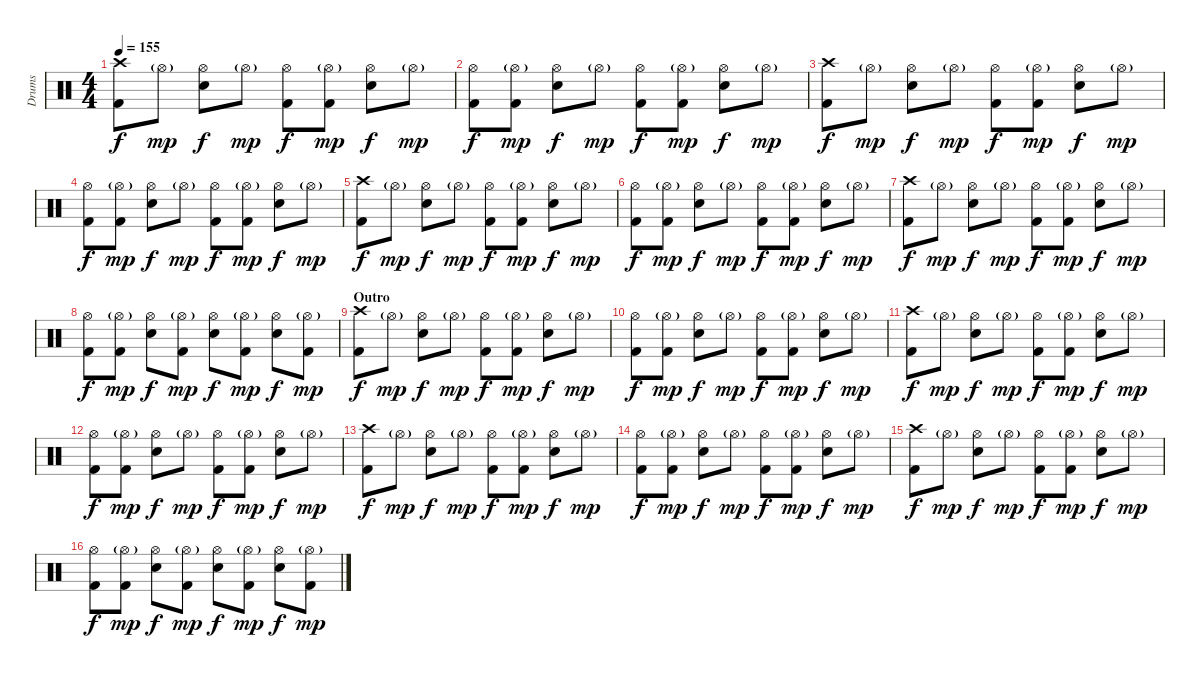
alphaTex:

\track ("Drums" "Drums") {instrument percussion}
\staff {score}
\articulation defaults
\ts (4 4)
\tempo 155
\clef neutral
\ks c
("Crash high (hit)" "Kick (hit) 2").8{dy f} "Hi-Hat (open)"{g}.8{dy mp} ("Hi-Hat (open)" "Electric Snare (hit)").8{dy f} "Hi-Hat (open)"{g}.8{dy mp} ("Hi-Hat (open)" "Kick (hit) 2").8{dy f} ("Hi-Hat (open)"{g} "Kick (hit) 2").8{dy mp} ("Hi-Hat (open)" "Electric Snare (hit)").8{dy f} "Hi-Hat (open)"{g}.8{dy mp} |
("Hi-Hat (open)" "Kick (hit) 2").8{dy f} ("Hi-Hat (open)"{g} "Kick (hit) 2").8{dy mp} ("Hi-Hat (open)" "Electric Snare (hit)").8{dy f} "Hi-Hat (open)"{g}.8{dy mp} ("Hi-Hat (open)" "Kick (hit) 2").8{dy f} ("Hi-Hat (open)"{g} "Kick (hit) 2").8{dy mp} ("Hi-Hat (open)" "Electric Snare (hit)").8{dy f} "Hi-Hat (open)"{g}.8{dy mp} |
("Crash high (hit)" "Kick (hit) 2").8{dy f} "Hi-Hat (open)"{g}.8{dy mp} ("Hi-Hat (open)" "Electric Snare (hit)").8{dy f} "Hi-Hat (open)"{g}.8{dy mp} ("Hi-Hat (open)" "Kick (hit) 2").8{dy f} ("Hi-Hat (open)"{g} "Kick (hit) 2").8{dy mp} ("Hi-Hat (open)" "Electric Snare (hit)").8{dy f} "Hi-Hat (open)"{g}.8{dy mp} |
("Hi-Hat (open)" "Kick (hit) 2").8{dy f} ("Hi-Hat (open)"{g} "Kick (hit) 2").8{dy mp} ("Hi-Hat (open)" "Electric Snare (hit)").8{dy f} "Hi-Hat (open)"{g}.8{dy mp} ("Hi-Hat (open)" "Kick (hit) 2").8{dy f} ("Hi-Hat (open)"{g} "Kick (hit) 2").8{dy mp} ("Hi-Hat (open)" "Electric Snare (hit)").8{dy f} "Hi-Hat (open)"{g}.8{dy mp} |
("Crash high (hit)" "Kick (hit) 2").8{dy f} "Hi-Hat (open)"{g}.8{dy mp} ("Hi-Hat (open)" "Electric Snare (hit)").8{dy f} "Hi-Hat (open)"{g}.8{dy mp} ("Hi-Hat (open)" "Kick (hit) 2").8{dy f} ("Hi-Hat (open)"{g} "Kick (hit) 2").8{dy mp} ("Hi-Hat (open)" "Electric Snare (hit)").8{dy f} "Hi-Hat (open)"{g}.8{dy mp} |
("Hi-Hat (open)" "Kick (hit) 2").8{dy f} ("Hi-Hat (open)"{g} "Kick (hit) 2").8{dy mp} ("Hi-Hat (open)" "Electric Snare (hit)").8{dy f} "Hi-Hat (open)"{g}.8{dy mp} ("Hi-Hat (open)" "Kick (hit) 2").8{dy f} ("Hi-Hat (open)"{g} "Kick (hit) 2").8{dy mp} ("Hi-Hat (open)" "Electric Snare (hit)").8{dy f} "Hi-Hat (open)"{g}.8{dy mp} |
("Crash high (hit)" "Kick (hit) 2").8{dy f} "Hi-Hat (open)"{g}.8{dy mp} ("Hi-Hat (open)" "Electric Snare (hit)").8{dy f} "Hi-Hat (open)"{g}.8{dy mp} ("Hi-Hat (open)" "Kick (hit) 2").8{dy f} ("Hi-Hat (open)"{g} "Kick (hit) 2").8{dy mp} ("Hi-Hat (open)" "Electric Snare (hit)").8{dy f} "Hi-Hat (open)"{g}.8{dy mp} |
("Hi-Hat (open)" "Kick (hit) 2").8{dy f} ("Hi-Hat (open)"{g} "Kick (hit) 2").8{dy mp} ("Hi-Hat (open)" "Electric Snare (hit)").8{dy f} ("Hi-Hat (open)"{g} "Kick (hit) 2").8{dy mp} ("Hi-Hat (open)" "Electric Snare (hit)").8{dy f} ("Hi-Hat (open)"{g} "Kick (hit) 2").8{dy mp} ("Hi-Hat (open)" "Electric Snare (hit)").8{dy f} ("Hi-Hat (open)"{g} "Kick (hit) 2").8{dy mp} |
\section ("" "Outro")
("Crash high (hit)" "Kick (hit) 2").8{dy f} "Hi-Hat (open)"{g}.8{dy mp} ("Hi-Hat (open)" "Electric Snare (hit)").8{dy f} "Hi-Hat (open)"{g}.8{dy mp} ("Hi-Hat (open)" "Kick (hit) 2").8{dy f} ("Hi-Hat (open)"{g} "Kick (hit) 2").8{dy mp} ("Hi-Hat (open)" "Electric Snare (hit)").8{dy f} "Hi-Hat (open)"{g}.8{dy mp} |
("Hi-Hat (open)" "Kick (hit) 2").8{dy f} ("Hi-Hat (open)"{g} "Kick (hit) 2").8{dy mp} ("Hi-Hat (open)" "Electric Snare (hit)").8{dy f} "Hi-Hat (open)"{g}.8{dy mp} ("Hi-Hat (open)" "Kick (hit) 2").8{dy f} ("Hi-Hat (open)"{g} "Kick (hit) 2").8{dy mp} ("Hi-Hat (open)" "Electric Snare (hit)").8{dy f} "Hi-Hat (open)"{g}.8{dy mp} |
("Crash high (hit)" "Kick (hit) 2").8{dy f} "Hi-Hat (open)"{g}.8{dy mp} ("Hi-Hat (open)" "Electric Snare (hit)").8{dy f} "Hi-Hat (open)"{g}.8{dy mp} ("Hi-Hat (open)" "Kick (hit) 2").8{dy f} ("Hi-Hat (open)"{g} "Kick (hit) 2").8{dy mp} ("Hi-Hat (open)" "Electric Snare (hit)").8{dy f} "Hi-Hat (open)"{g}.8{dy mp} |
("Hi-Hat (open)" "Kick (hit) 2").8{dy f} ("Hi-Hat (open)"{g} "Kick (hit) 2").8{dy mp} ("Hi-Hat (open)" "Electric Snare (hit)").8{dy f} "Hi-Hat (open)"{g}.8{dy mp} ("Hi-Hat (open)" "Kick (hit) 2").8{dy f} ("Hi-Hat (open)"{g} "Kick (hit) 2").8{dy mp} ("Hi-Hat (open)" "Electric Snare (hit)").8{dy f} "Hi-Hat (open)"{g}.8{dy mp} |
("Crash high (hit)" "Kick (hit) 2").8{dy f} "Hi-Hat (open)"{g}.8{dy mp} ("Hi-Hat (open)" "Electric Snare (hit)").8{dy f} "Hi-Hat (open)"{g}.8{dy mp} ("Hi-Hat (open)" "Kick (hit) 2").8{dy f} ("Hi-Hat (open)"{g} "Kick (hit) 2").8{dy mp} ("Hi-Hat (open)" "Electric Snare (hit)").8{dy f} "Hi-Hat (open)"{g}.8{dy mp} |
("Hi-Hat (open)" "Kick (hit) 2").8{dy f} ("Hi-Hat (open)"{g} "Kick (hit) 2").8{dy mp} ("Hi-Hat (open)" "Electric Snare (hit)").8{dy f} "Hi-Hat (open)"{g}.8{dy mp} ("Hi-Hat (open)" "Kick (hit) 2").8{dy f} ("Hi-Hat (open)"{g} "Kick (hit) 2").8{dy mp} ("Hi-Hat (open)" "Electric Snare (hit)").8{dy f} "Hi-Hat (open)"{g}.8{dy mp} |
("Crash high (hit)" "Kick (hit) 2").8{dy f} "Hi-Hat (open)"{g}.8{dy mp} ("Hi-Hat (open)" "Electric Snare (hit)").8{dy f} "Hi-Hat (open)"{g}.8{dy mp} ("Hi-Hat (open)" "Kick (hit) 2").8{dy f} ("Hi-Hat (open)"{g} "Kick (hit) 2").8{dy mp} ("Hi-Hat (open)" "Electric Snare (hit)").8{dy f} "Hi-Hat (open)"{g}.8{dy mp} |
("Hi-Hat (open)" "Kick (hit) 2").8{dy f} ("Hi-Hat (open)"{g} "Kick (hit) 2").8{dy mp} ("Hi-Hat (open)" "Electric Snare (hit)").8{dy f} ("Hi-Hat (open)"{g} "Kick (hit) 2").8{dy mp} ("Hi-Hat (open)" "Electric Snare (hit)").8{dy f} ("Hi-Hat (open)"{g} "Kick (hit) 2").8{dy mp} ("Hi-Hat (open)" "Electric Snare (hit)").8{dy f} ("Hi-Hat (open)"{g} "Kick (hit) 2").8{dy mp}
